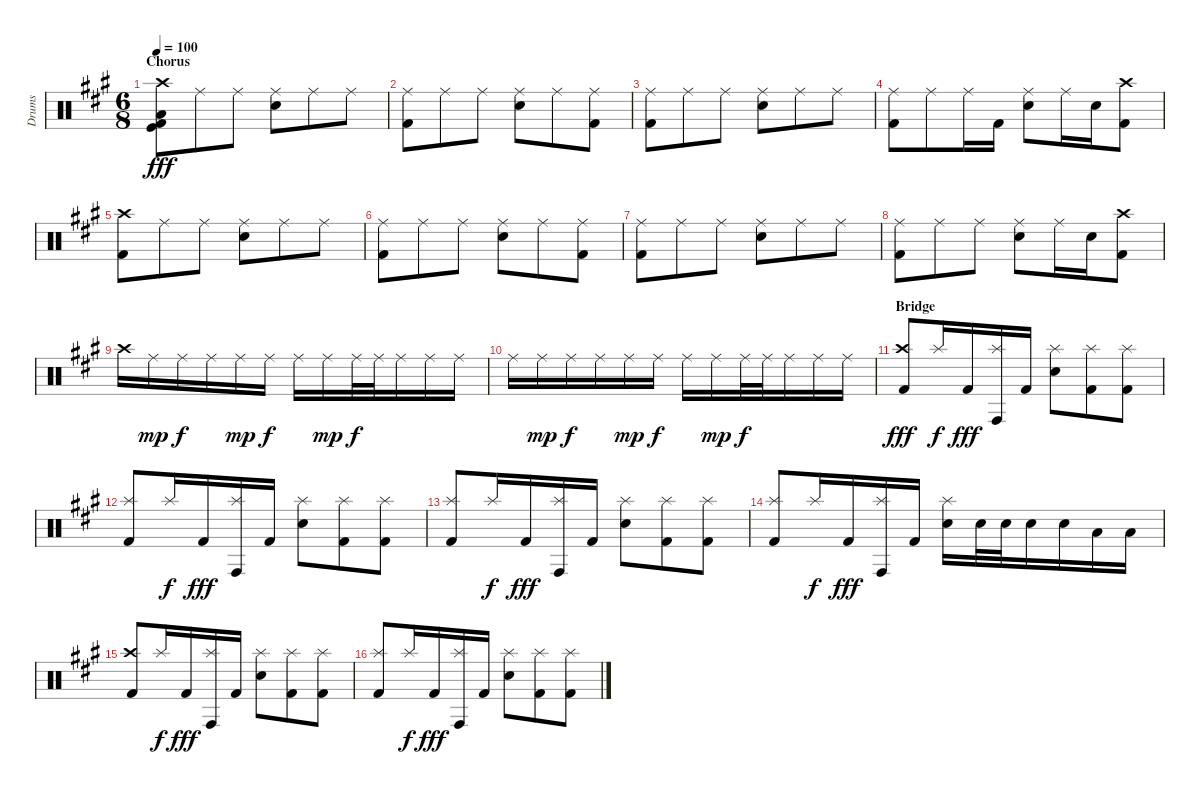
\track ("Drums" "Drums") {instrument percussion}
\staff {score}
\articulation defaults
\ts (6 8)
\section ("" "Chorus")
\tempo 100
\clef neutral
\ks a
("Crash high (hit)" "Low Floor Tom (hit)" "Kick (hit) 2" "Kick (hit)").8{dy fff} "Ride (middle)".8 "Ride (middle)".8 ("Ride (middle)" "Electric Snare (hit)").8 "Ride (middle)".8 "Ride (middle)".8 |
("Ride (middle)" "Kick (hit) 2").8 "Ride (middle)".8 "Ride (middle)".8 ("Ride (middle)" "Electric Snare (hit)").8 "Ride (middle)".8 ("Ride (middle)" "Kick (hit) 2").8 |
("Ride (middle)" "Kick (hit) 2").8 "Ride (middle)".8 "Ride (middle)".8 ("Ride (middle)" "Electric Snare (hit)").8 "Ride (middle)".8 "Ride (middle)".8 |
("Ride (middle)" "Kick (hit) 2").8 "Ride (middle)".8 "Ride (middle)".16 "Kick (hit) 2".16 ("Ride (middle)" "Electric Snare (hit)").8 "Ride (middle)".16 "Electric Snare (hit)".16 ("Crash high (hit)" "Kick (hit) 2").8 |
("Crash high (hit)" "Kick (hit) 2").8 "Ride (middle)".8 "Ride (middle)".8 ("Ride (middle)" "Electric Snare (hit)").8 "Ride (middle)".8 "Ride (middle)".8 |
("Ride (middle)" "Kick (hit) 2").8 "Ride (middle)".8 "Ride (middle)".8 ("Ride (middle)" "Electric Snare (hit)").8 "Ride (middle)".8 ("Ride (middle)" "Kick (hit) 2").8 |
("Ride (middle)" "Kick (hit) 2").8 "Ride (middle)".8 "Ride (middle)".8 ("Ride (middle)" "Electric Snare (hit)").8 "Ride (middle)".8 "Ride (middle)".8 |
("Ride (middle)" "Kick (hit) 2").8 "Ride (middle)".8 "Ride (middle)".8 ("Ride (middle)" "Electric Snare (hit)").8 "Ride (middle)".16 "Electric Snare (hit)".16 ("Crash high (hit)" "Kick (hit) 2").8 |
"Crash high (hit)".16 "Ride (middle)".16{dy mp} "Ride (middle)".16{dy f} "Ride (middle)".16 "Ride (middle)".16{dy mp} "Ride (middle)".16{dy f} "Ride (middle)".16 "Ride (middle)".16{dy mp} "Ride (middle)".32{dy f} "Ride (middle)".32 "Ride (middle)".16 "Ride (middle)".16 "Ride (middle)".16 |
"Ride (middle)".16 "Ride (middle)".16{dy mp} "Ride (middle)".16{dy f} "Ride (middle)".16 "Ride (middle)".16{dy mp} "Ride (middle)".16{dy f} "Ride (middle)".16 "Ride (middle)".16{dy mp} "Ride (middle)".32{dy f} "Ride (middle)".32 "Ride (middle)".16 "Ride (middle)".16 "Ride (middle)".16 |
\section ("" "Bridge")
("Crash high (hit)" "Kick (hit) 2").8{dy fff} "Splash (hit)".16{dy f} "Kick (hit) 2".16{dy fff} ("Splash (hit)" "Conga high (hit)").16 "Kick (hit) 2".16 ("Splash (hit)" "Electric Snare (hit)").8 ("Splash (hit)" "Kick (hit) 2").8 ("Splash (hit)" "Kick (hit) 2").8 |
("Splash (hit)" "Kick (hit) 2").8 "Splash (hit)".16{dy f} "Kick (hit) 2".16{dy fff} ("Splash (hit)" "Conga high (hit)").16 "Kick (hit) 2".16 ("Splash (hit)" "Electric Snare (hit)").8 ("Splash (hit)" "Kick (hit) 2").8 ("Splash (hit)" "Kick (hit) 2").8 |
("Splash (hit)" "Kick (hit) 2").8 "Splash (hit)".16{dy f} "Kick (hit) 2".16{dy fff} ("Splash (hit)" "Conga high (hit)").16 "Kick (hit) 2".16 ("Splash (hit)" "Electric Snare (hit)").8 ("Splash (hit)" "Kick (hit) 2").8 ("Splash (hit)" "Kick (hit) 2").8 |
("Splash (hit)" "Kick (hit) 2").8 "Splash (hit)".16{dy f} "Kick (hit) 2".16{dy fff} ("Splash (hit)" "Conga high (hit)").16 "Kick (hit) 2".16 ("Splash (hit)" "Electric Snare (hit)").16 "Electric Snare (hit)".32 "Electric Snare (hit)".32 "Electric Snare (hit)".16 "Electric Snare (hit)".16 "Low Tom (hit)".16 "Low Tom (hit)".16 |
("Crash high (hit)" "Kick (hit) 2").8 "Splash (hit)".16{dy f} "Kick (hit) 2".16{dy fff} ("Splash (hit)" "Conga high (hit)").16 "Kick (hit) 2".16 ("Splash (hit)" "Electric Snare (hit)").8 ("Splash (hit)" "Kick (hit) 2").8 ("Splash (hit)" "Kick (hit) 2").8 |
("Splash (hit)" "Kick (hit) 2").8 "Splash (hit)".16{dy f} "Kick (hit) 2".16{dy fff} ("Splash (hit)" "Conga high (hit)").16 "Kick (hit) 2".16 ("Splash (hit)" "Electric Snare (hit)").8 ("Splash (hit)" "Kick (hit) 2").8 ("Splash (hit)" "Kick (hit) 2").8
